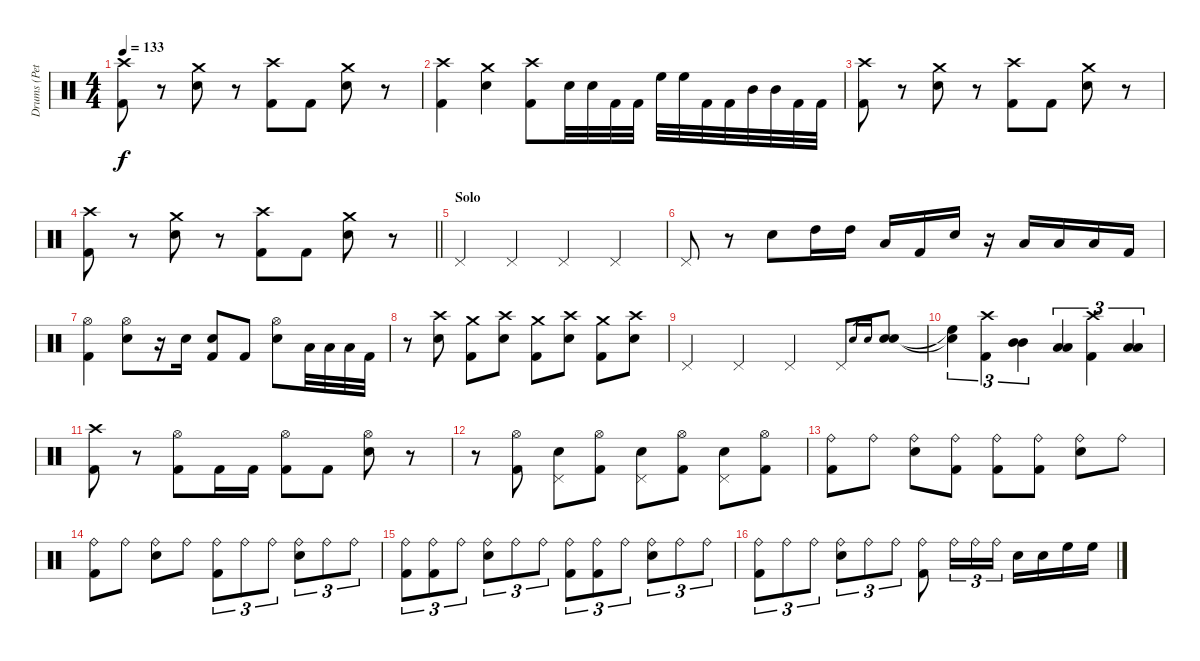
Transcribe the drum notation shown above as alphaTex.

\track ("Drums (Peter)" "Drums (Pet") {instrument percussion}
\staff {score}
\articulation defaults
\ts (4 4)
\tempo 133
\clef neutral
\ks c
("Crash high (hit)" "Kick (hit) 2").8{dy f} r.8 ("Crash medium (hit)" "Electric Snare (hit)").8 r.8 ("Crash high (hit)" "Kick (hit) 2").8 "Kick (hit) 2".8 ("Crash medium (hit)" "Electric Snare (hit)").8 r.8 |
("Crash high (hit)" "Kick (hit) 2").4 ("Crash medium (hit)" "Electric Snare (hit)").4 ("Crash high (hit)" "Kick (hit) 2").8{volume 16} "Electric Snare (hit)".32 "Electric Snare (hit)".32 "Kick (hit) 2".32 "Kick (hit) 2".32 "High Floor Tom (hit)".32 "High Floor Tom (hit)".32 "Kick (hit) 2".32 "Kick (hit) 2".32 "Mid Tom (hit)".32 "Mid Tom (hit)".32 "Kick (hit) 2".32 "Kick (hit) 2".32 |
("Crash high (hit)" "Kick (hit) 2").8{volume 14} r.8 ("Crash medium (hit)" "Electric Snare (hit)").8 r.8 ("Crash high (hit)" "Kick (hit) 2").8 "Kick (hit) 2".8 ("Crash medium (hit)" "Electric Snare (hit)").8 r.8 |
\barLineRight lightlight
("Crash high (hit)" "Kick (hit) 2").8 r.8 ("Crash medium (hit)" "Electric Snare (hit)").8 r.8 ("Crash high (hit)" "Kick (hit) 2").8 "Kick (hit) 2".8 ("Crash medium (hit)" "Electric Snare (hit)").8 r.8 |
\section ("" "Solo")
"Pedal Hi-Hat (hit)".4 "Pedal Hi-Hat (hit)".4 "Pedal Hi-Hat (hit)".4 "Pedal Hi-Hat (hit)".4 |
"Pedal Hi-Hat (hit)".8 r.8 "Electric Snare (hit)".8 "High Tom (hit)".16 "High Tom (hit)".16 "Low Floor Tom (hit)".16 "Kick (hit) 2".16 "Electric Snare (hit)".16 r.16 "Low Tom (hit)".16 "Low Tom (hit)".16 "Low Floor Tom (hit)".16 "Kick (hit) 2".16 |
("Hi-Hat (open)" "Kick (hit) 2").4 ("Hi-Hat (open)" "Electric Snare (hit)").8 r.16 "Snare (hit) 2".16 ("Snare (hit) 2" "Kick (hit) 2").8 "Kick (hit) 2".8 ("Hi-Hat (open)" "Electric Snare (hit)").8 "Low Tom (hit)".32 "Low Tom (hit)".32 "Low Floor Tom (hit)".32 "Kick (hit) 2".32 |
r.8 ("Crash high (hit)" "Electric Snare (hit)").8 ("Crash medium (hit)" "Kick (hit) 2").8 ("Crash high (hit)" "Electric Snare (hit)").8 ("Crash medium (hit)" "Kick (hit) 2").8 ("Crash high (hit)" "Electric Snare (hit)").8 ("Crash medium (hit)" "Kick (hit) 2").8 ("Crash high (hit)" "Electric Snare (hit)").8 |
"Pedal Hi-Hat (hit)".4 "Pedal Hi-Hat (hit)".4 "Pedal Hi-Hat (hit)".4 "Pedal Hi-Hat (hit)".8 "Electric Snare (hit)".16{gr} "Electric Snare (hit)".16{gr} ("Electric Snare (hit)" "Electric Snare (hit)").8 |
("Snare (hit)"{t} "High Floor Tom (hit)"{t}).4{tu (3 2)} ("Crash high (hit)" "Kick (hit) 2").4{tu (3 2)} ("Mid Tom (hit)" "Mid Tom (hit)").4{tu (3 2)} ("Low Tom (hit)" "Low Tom (hit)").4{tu (3 2)} ("Crash high (hit)" "Kick (hit) 2").4{tu (3 2)} ("Low Floor Tom (hit)" "Low Floor Tom (hit)").4{tu (3 2)} |
("Crash high (hit)" "Kick (hit) 2").8 r.8 ("Hi-Hat (open)" "Kick (hit) 2").8 "Kick (hit) 2".16 "Kick (hit) 2".16 ("Hi-Hat (open)" "Kick (hit) 2").8 "Kick (hit) 2".8 ("Hi-Hat (open)" "Electric Snare (hit)").8 r.8 |
r.8 ("Hi-Hat (open)" "Kick (hit) 2").8 ("Pedal Hi-Hat (hit)" "Electric Snare (hit)").8 ("Hi-Hat (open)" "Kick (hit) 2").8 ("Pedal Hi-Hat (hit)" "Electric Snare (hit)").8 ("Hi-Hat (open)" "Kick (hit) 2").8 ("Pedal Hi-Hat (hit)" "Electric Snare (hit)").8 ("Hi-Hat (open)" "Kick (hit) 2").8 |
("Ride (bell)" "Kick (hit) 2").8 "Ride (bell)".8 ("Ride (bell)" "Electric Snare (hit)").8 ("Ride (bell)" "Kick (hit) 2").8 ("Ride (bell)" "Kick (hit) 2").8 ("Ride (bell)" "Kick (hit) 2").8 ("Ride (bell)" "Electric Snare (hit)").8 "Ride (bell)".8 |
("Ride (bell)" "Kick (hit) 2").8 "Ride (bell)".8 ("Ride (bell)" "Electric Snare (hit)").8 "Ride (bell)".8 ("Ride (bell)" "Kick (hit) 2").8{tu (3 2)} "Ride (bell)".8{tu (3 2)} "Ride (bell)".8{tu (3 2)} ("Ride (bell)" "Electric Snare (hit)").8{tu (3 2)} "Ride (bell)".8{tu (3 2)} "Ride (bell)".8{tu (3 2)} |
("Ride (bell)" "Kick (hit) 2").8{tu (3 2)} ("Ride (bell)" "Kick (hit) 2").8{tu (3 2)} "Ride (bell)".8{tu (3 2)} ("Ride (bell)" "Electric Snare (hit)").8{tu (3 2)} "Ride (bell)".8{tu (3 2)} "Ride (bell)".8{tu (3 2)} ("Ride (bell)" "Kick (hit) 2").8{tu (3 2)} ("Ride (bell)" "Kick (hit) 2").8{tu (3 2)} "Ride (bell)".8{tu (3 2)} ("Ride (bell)" "Electric Snare (hit)").8{tu (3 2)} "Ride (bell)".8{tu (3 2)} "Ride (bell)".8{tu (3 2)} |
("Ride (bell)" "Kick (hit) 2").8{tu (3 2)} "Ride (bell)".8{tu (3 2)} "Ride (bell)".8{tu (3 2)} ("Ride (bell)" "Electric Snare (hit)").8{tu (3 2)} "Ride (bell)".8{tu (3 2)} "Ride (bell)".8{tu (3 2)} ("Ride (bell)" "Kick (hit) 2").8 "Ride (bell)".16{tu (3 2)} "Ride (bell)".16{tu (3 2)} "Ride (bell)".16{tu (3 2)} "Electric Snare (hit)".16 "Electric Snare (hit)".16 "High Floor Tom (hit)".16 "High Floor Tom (hit)".16
